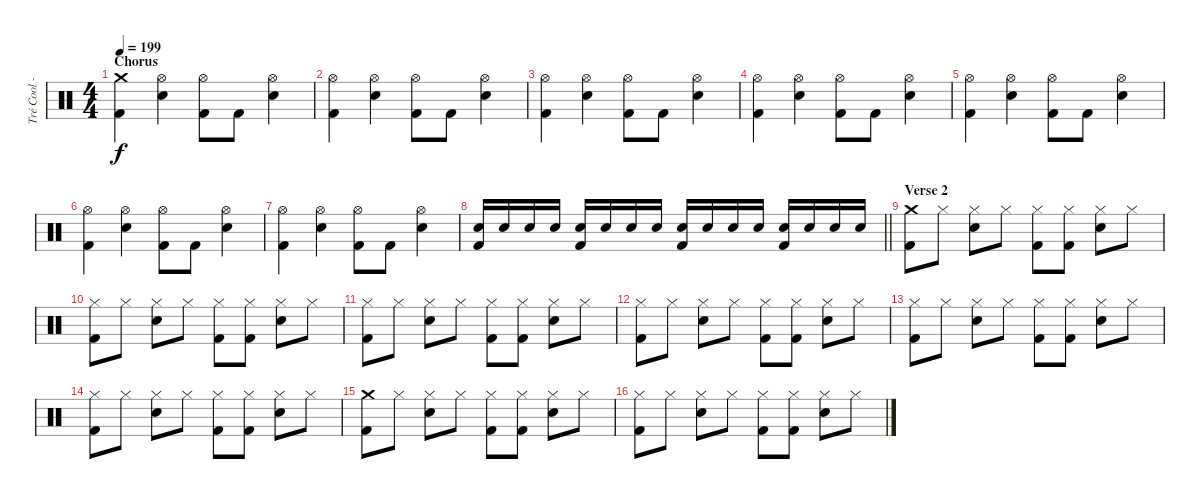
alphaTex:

\track ("Tré Cool - Drums" "Tré Cool -") {instrument percussion}
\staff {score}
\articulation defaults
\ts (4 4)
\section ("" "Chorus")
\tempo 199
\clef neutral
\ks c
("Crash medium (hit)" "Kick (hit) 2").4{dy f} ("Hi-Hat (open)" "Electric Snare (hit)").4 ("Hi-Hat (open)" "Kick (hit) 2").8 "Kick (hit) 2".8 ("Hi-Hat (open)" "Electric Snare (hit)").4 |
("Hi-Hat (open)" "Kick (hit) 2").4 ("Hi-Hat (open)" "Electric Snare (hit)").4 ("Hi-Hat (open)" "Kick (hit) 2").8 "Kick (hit) 2".8 ("Hi-Hat (open)" "Electric Snare (hit)").4 |
("Hi-Hat (open)" "Kick (hit) 2").4 ("Hi-Hat (open)" "Electric Snare (hit)").4 ("Hi-Hat (open)" "Kick (hit) 2").8 "Kick (hit) 2".8 ("Hi-Hat (open)" "Electric Snare (hit)").4 |
("Hi-Hat (open)" "Kick (hit) 2").4 ("Hi-Hat (open)" "Electric Snare (hit)").4 ("Hi-Hat (open)" "Kick (hit) 2").8 "Kick (hit) 2".8 ("Hi-Hat (open)" "Electric Snare (hit)").4 |
("Hi-Hat (open)" "Kick (hit) 2").4 ("Hi-Hat (open)" "Electric Snare (hit)").4 ("Hi-Hat (open)" "Kick (hit) 2").8 "Kick (hit) 2".8 ("Hi-Hat (open)" "Electric Snare (hit)").4 |
("Hi-Hat (open)" "Kick (hit) 2").4 ("Hi-Hat (open)" "Electric Snare (hit)").4 ("Hi-Hat (open)" "Kick (hit) 2").8 "Kick (hit) 2".8 ("Hi-Hat (open)" "Electric Snare (hit)").4 |
("Hi-Hat (open)" "Kick (hit) 2").4 ("Hi-Hat (open)" "Electric Snare (hit)").4 ("Hi-Hat (open)" "Kick (hit) 2").8 "Kick (hit) 2".8 ("Hi-Hat (open)" "Electric Snare (hit)").4 |
\barLineRight lightlight
("Electric Snare (hit)" "Kick (hit) 2").16{volume 8} "Electric Snare (hit)".16 "Electric Snare (hit)".16 "Electric Snare (hit)".16 ("Electric Snare (hit)" "Kick (hit) 2").16 "Electric Snare (hit)".16 "Electric Snare (hit)".16 "Electric Snare (hit)".16 ("Electric Snare (hit)" "Kick (hit) 2").16 "Electric Snare (hit)".16 "Electric Snare (hit)".16 "Electric Snare (hit)".16 ("Electric Snare (hit)" "Kick (hit) 2").16 "Electric Snare (hit)".16 "Electric Snare (hit)".16 "Electric Snare (hit)".16 |
\section ("" "Verse 2")
("Crash medium (hit)" "Kick (hit) 2").8{volume 11} "Hi-Hat (closed)".8 ("Hi-Hat (closed)" "Electric Snare (hit)").8 "Hi-Hat (closed)".8 ("Hi-Hat (closed)" "Kick (hit) 2").8 ("Hi-Hat (closed)" "Kick (hit) 2").8 ("Hi-Hat (closed)" "Electric Snare (hit)").8 "Hi-Hat (closed)".8 |
("Hi-Hat (closed)" "Kick (hit) 2").8 "Hi-Hat (closed)".8 ("Hi-Hat (closed)" "Electric Snare (hit)").8 "Hi-Hat (closed)".8 ("Hi-Hat (closed)" "Kick (hit) 2").8 ("Hi-Hat (closed)" "Kick (hit) 2").8 ("Hi-Hat (closed)" "Electric Snare (hit)").8 "Hi-Hat (closed)".8 |
("Hi-Hat (closed)" "Kick (hit) 2").8 "Hi-Hat (closed)".8 ("Hi-Hat (closed)" "Electric Snare (hit)").8 "Hi-Hat (closed)".8 ("Hi-Hat (closed)" "Kick (hit) 2").8 ("Hi-Hat (closed)" "Kick (hit) 2").8 ("Hi-Hat (closed)" "Electric Snare (hit)").8 "Hi-Hat (closed)".8 |
("Hi-Hat (closed)" "Kick (hit) 2").8 "Hi-Hat (closed)".8 ("Hi-Hat (closed)" "Electric Snare (hit)").8 "Hi-Hat (closed)".8 ("Hi-Hat (closed)" "Kick (hit) 2").8 ("Hi-Hat (closed)" "Kick (hit) 2").8 ("Hi-Hat (closed)" "Electric Snare (hit)").8 "Hi-Hat (closed)".8 |
("Hi-Hat (closed)" "Kick (hit) 2").8 "Hi-Hat (closed)".8 ("Hi-Hat (closed)" "Electric Snare (hit)").8 "Hi-Hat (closed)".8 ("Hi-Hat (closed)" "Kick (hit) 2").8 ("Hi-Hat (closed)" "Kick (hit) 2").8 ("Hi-Hat (closed)" "Electric Snare (hit)").8 "Hi-Hat (closed)".8 |
("Hi-Hat (closed)" "Kick (hit) 2").8 "Hi-Hat (closed)".8 ("Hi-Hat (closed)" "Electric Snare (hit)").8 "Hi-Hat (closed)".8 ("Hi-Hat (closed)" "Kick (hit) 2").8 ("Hi-Hat (closed)" "Kick (hit) 2").8 ("Hi-Hat (closed)" "Electric Snare (hit)").8 "Hi-Hat (closed)".8 |
("Crash medium (hit)" "Kick (hit) 2").8 "Hi-Hat (closed)".8 ("Hi-Hat (closed)" "Electric Snare (hit)").8 "Hi-Hat (closed)".8 ("Hi-Hat (closed)" "Kick (hit) 2").8 ("Hi-Hat (closed)" "Kick (hit) 2").8 ("Hi-Hat (closed)" "Electric Snare (hit)").8 "Hi-Hat (closed)".8 |
("Hi-Hat (closed)" "Kick (hit) 2").8 "Hi-Hat (closed)".8 ("Hi-Hat (closed)" "Electric Snare (hit)").8 "Hi-Hat (closed)".8 ("Hi-Hat (closed)" "Kick (hit) 2").8 ("Hi-Hat (closed)" "Kick (hit) 2").8 ("Hi-Hat (closed)" "Electric Snare (hit)").8 "Hi-Hat (closed)".8
